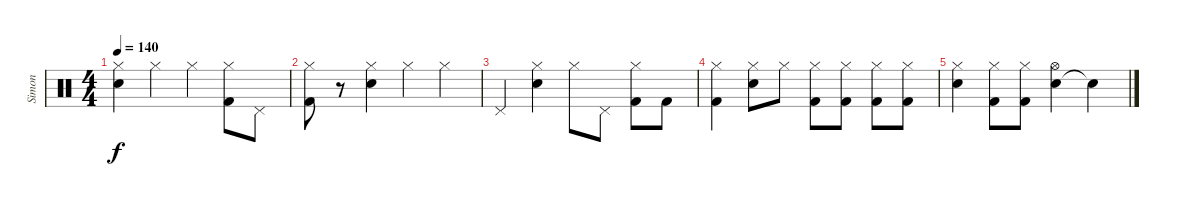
\track ("Simon" "Simon") {instrument percussion}
\staff {score}
\articulation defaults
\ts (4 4)
\tempo 140
\clef neutral
\ks c
("Electric Snare (hit)" "Hi-Hat (closed)").4{dy f} "Hi-Hat (closed)".4 "Hi-Hat (closed)".4 ("Kick (hit) 2" "Hi-Hat (closed)").8 "Pedal Hi-Hat (hit)".8 |
("Kick (hit) 2" "Hi-Hat (closed)").8 r.8 ("Electric Snare (hit)" "Hi-Hat (closed)").4 "Hi-Hat (closed)".4 "Hi-Hat (closed)".4 |
"Pedal Hi-Hat (hit)".4 ("Electric Snare (hit)" "Hi-Hat (closed)").4 "Hi-Hat (closed)".8 "Pedal Hi-Hat (hit)".8 ("Kick (hit) 2" "Hi-Hat (closed)").8 "Kick (hit) 2".8 |
("Kick (hit) 2" "Hi-Hat (closed)").4 ("Electric Snare (hit)" "Hi-Hat (closed)").8 "Hi-Hat (closed)".8 ("Kick (hit) 2" "Hi-Hat (closed)").8 ("Kick (hit) 2" "Hi-Hat (closed)").8 ("Kick (hit) 2" "Hi-Hat (closed)").8 ("Kick (hit) 2" "Hi-Hat (closed)").8 |
("Electric Snare (hit)" "Hi-Hat (closed)").4 ("Kick (hit) 2" "Hi-Hat (closed)").8 ("Kick (hit) 2" "Hi-Hat (closed)").8 ("Electric Snare (hit)" "Hi-Hat (open)").4 "Snare (hit)"{t}.4
